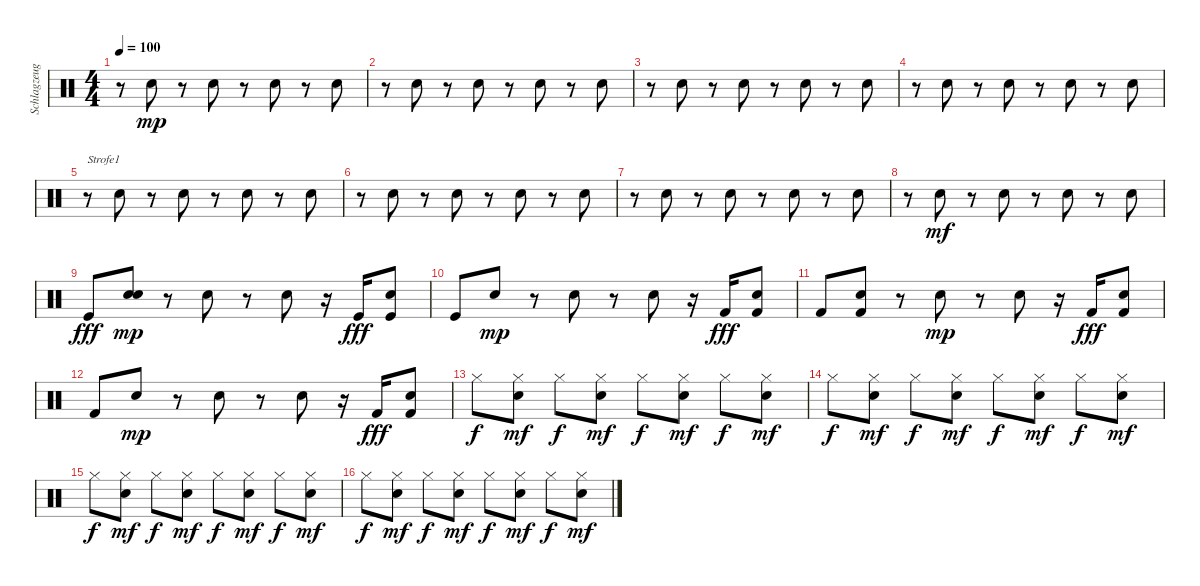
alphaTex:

\track ("Schlagzeug (Intro)" "Schlagzeug") {instrument percussion}
\staff {score}
\articulation defaults
\ts (4 4)
\tempo 100
\clef neutral
\ks c
r.8{dy mp} "Hand Clap (hit)".8 r.8 "Hand Clap (hit)".8 r.8 "Hand Clap (hit)".8 r.8 "Hand Clap (hit)".8 |
r.8 "Hand Clap (hit)".8 r.8 "Hand Clap (hit)".8 r.8 "Hand Clap (hit)".8 r.8 "Hand Clap (hit)".8 |
r.8 "Hand Clap (hit)".8 r.8 "Hand Clap (hit)".8 r.8 "Hand Clap (hit)".8 r.8 "Hand Clap (hit)".8 |
r.8 "Hand Clap (hit)".8 r.8 "Hand Clap (hit)".8 r.8 "Hand Clap (hit)".8 r.8 "Hand Clap (hit)".8 |
r.8{txt "Strofe1"} "Hand Clap (hit)".8 r.8 "Hand Clap (hit)".8 r.8 "Hand Clap (hit)".8 r.8 "Hand Clap (hit)".8 |
r.8 "Hand Clap (hit)".8 r.8 "Hand Clap (hit)".8 r.8 "Hand Clap (hit)".8 r.8 "Hand Clap (hit)".8 |
r.8 "Hand Clap (hit)".8 r.8 "Hand Clap (hit)".8 r.8 "Hand Clap (hit)".8 r.8 "Hand Clap (hit)".8 |
r.8 "Hand Clap (hit)".8{dy mf} r.8 "Hand Clap (hit)".8 r.8 "Hand Clap (hit)".8 r.8 "Hand Clap (hit)".8 |
"Kick (hit)".8{dy fff} ("Hand Clap (hit)" "Snare (hit)").8{dy mp} r.8 "Hand Clap (hit)".8 r.8 "Hand Clap (hit)".8 r.16 "Kick (hit)".16{dy fff} ("Hand Clap (hit)" "Kick (hit)").8 |
"Kick (hit)".8 "Hand Clap (hit)".8{dy mp} r.8 "Hand Clap (hit)".8 r.8 "Hand Clap (hit)".8 r.16 "Kick (hit) 2".16{dy fff} ("Hand Clap (hit)" "Kick (hit) 2").8 |
"Kick (hit) 2".8 ("Hand Clap (hit)" "Kick (hit) 2").8 r.8 "Hand Clap (hit)".8{dy mp} r.8 "Hand Clap (hit)".8 r.16 "Kick (hit) 2".16{dy fff} ("Hand Clap (hit)" "Kick (hit) 2").8 |
"Kick (hit) 2".8 "Hand Clap (hit)".8{dy mp} r.8 "Hand Clap (hit)".8 r.8 "Hand Clap (hit)".8 r.16 "Kick (hit) 2".16{dy fff} ("Hand Clap (hit)" "Kick (hit) 2").8 |
"Hi-Hat (closed)".8{dy f} ("Hand Clap (hit)" "Hi-Hat (closed)").8{dy mf} "Hi-Hat (closed)".8{dy f} ("Hand Clap (hit)" "Hi-Hat (closed)").8{dy mf} "Hi-Hat (closed)".8{dy f} ("Hand Clap (hit)" "Hi-Hat (closed)").8{dy mf} "Hi-Hat (closed)".8{dy f} ("Hand Clap (hit)" "Hi-Hat (closed)").8{dy mf} |
"Hi-Hat (closed)".8{dy f} ("Hand Clap (hit)" "Hi-Hat (closed)").8{dy mf} "Hi-Hat (closed)".8{dy f} ("Hand Clap (hit)" "Hi-Hat (closed)").8{dy mf} "Hi-Hat (closed)".8{dy f} ("Hand Clap (hit)" "Hi-Hat (closed)").8{dy mf} "Hi-Hat (closed)".8{dy f} ("Hand Clap (hit)" "Hi-Hat (closed)").8{dy mf} |
"Hi-Hat (closed)".8{dy f} ("Hand Clap (hit)" "Hi-Hat (closed)").8{dy mf} "Hi-Hat (closed)".8{dy f} ("Hand Clap (hit)" "Hi-Hat (closed)").8{dy mf} "Hi-Hat (closed)".8{dy f} ("Hand Clap (hit)" "Hi-Hat (closed)").8{dy mf} "Hi-Hat (closed)".8{dy f} ("Hand Clap (hit)" "Hi-Hat (closed)").8{dy mf} |
"Hi-Hat (closed)".8{dy f} ("Hand Clap (hit)" "Hi-Hat (closed)").8{dy mf} "Hi-Hat (closed)".8{dy f} ("Hand Clap (hit)" "Hi-Hat (closed)").8{dy mf} "Hi-Hat (closed)".8{dy f} ("Hand Clap (hit)" "Hi-Hat (closed)").8{dy mf} "Hi-Hat (closed)".8{dy f} ("Hand Clap (hit)" "Hi-Hat (closed)").8{dy mf}
